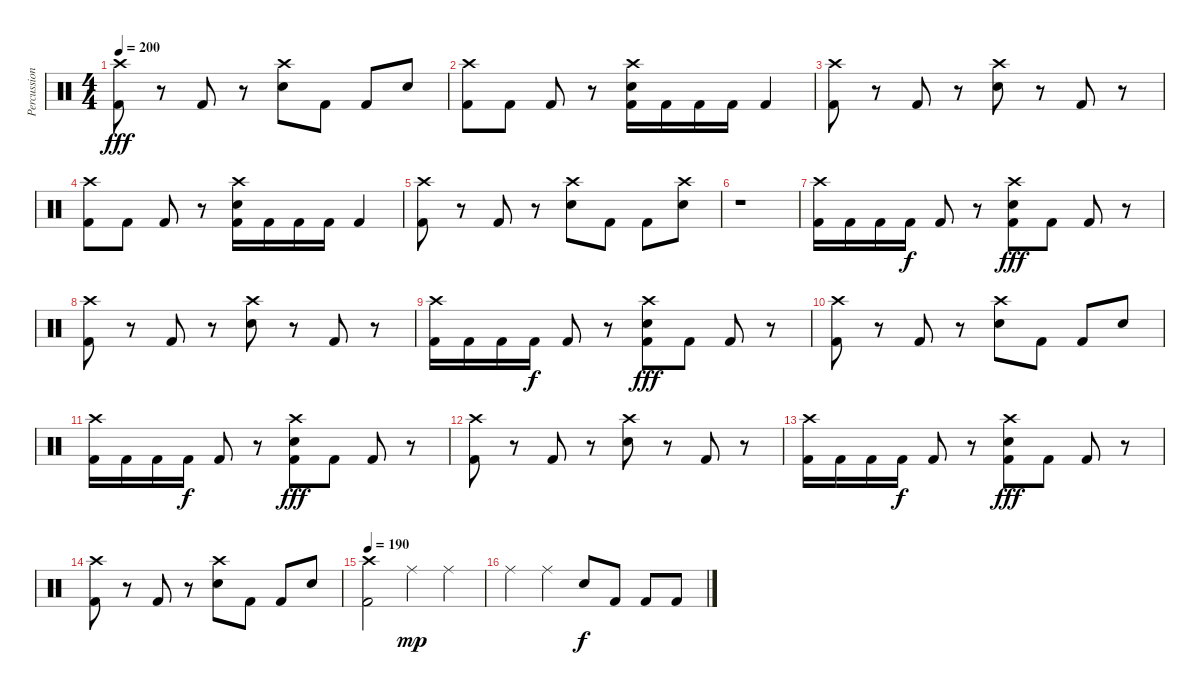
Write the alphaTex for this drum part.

\track ("Percussion" "Percussion") {instrument percussion}
\staff {score}
\articulation defaults
\ts (4 4)
\tempo 200
\clef neutral
\ks c
("Crash high (hit)" "Kick (hit) 2").8{dy fff} r.8 "Kick (hit) 2".8 r.8 ("Crash high (hit)" "Electric Snare (hit)").8 "Kick (hit) 2".8 "Kick (hit) 2".8 "Electric Snare (hit)".8 |
("Crash high (hit)" "Kick (hit) 2").8 "Kick (hit) 2".8 "Kick (hit) 2".8 r.8 ("Crash high (hit)" "Electric Snare (hit)" "Kick (hit) 2").16 "Kick (hit) 2".16 "Kick (hit) 2".16 "Kick (hit) 2".16 "Kick (hit) 2".4 |
("Crash high (hit)" "Kick (hit) 2").8 r.8 "Kick (hit) 2".8 r.8 ("Crash high (hit)" "Electric Snare (hit)").8 r.8 "Kick (hit) 2".8 r.8 |
("Crash high (hit)" "Kick (hit) 2").8 "Kick (hit) 2".8 "Kick (hit) 2".8 r.8 ("Crash high (hit)" "Electric Snare (hit)" "Kick (hit) 2").16 "Kick (hit) 2".16 "Kick (hit) 2".16 "Kick (hit) 2".16 "Kick (hit) 2".4 |
("Crash high (hit)" "Kick (hit) 2").8 r.8 "Kick (hit) 2".8 r.8 ("Crash high (hit)" "Electric Snare (hit)").8 "Kick (hit) 2".8 "Kick (hit) 2".8 ("Crash high (hit)" "Electric Snare (hit)").8 |
r.1 |
("Crash high (hit)" "Kick (hit) 2").16 "Kick (hit) 2".16 "Kick (hit) 2".16 "Kick (hit) 2".16{dy f} "Kick (hit) 2".8 r.8 ("Crash high (hit)" "Electric Snare (hit)" "Kick (hit) 2").8{dy fff} "Kick (hit) 2".8 "Kick (hit) 2".8 r.8 |
("Crash high (hit)" "Kick (hit) 2").8 r.8 "Kick (hit) 2".8 r.8 ("Crash high (hit)" "Electric Snare (hit)").8 r.8 "Kick (hit) 2".8 r.8 |
("Crash high (hit)" "Kick (hit) 2").16 "Kick (hit) 2".16 "Kick (hit) 2".16 "Kick (hit) 2".16{dy f} "Kick (hit) 2".8 r.8 ("Crash high (hit)" "Electric Snare (hit)" "Kick (hit) 2").8{dy fff} "Kick (hit) 2".8 "Kick (hit) 2".8 r.8 |
("Crash high (hit)" "Kick (hit) 2").8 r.8 "Kick (hit) 2".8 r.8 ("Crash high (hit)" "Electric Snare (hit)").8 "Kick (hit) 2".8 "Kick (hit) 2".8 "Electric Snare (hit)".8 |
("Crash high (hit)" "Kick (hit) 2").16 "Kick (hit) 2".16 "Kick (hit) 2".16 "Kick (hit) 2".16{dy f} "Kick (hit) 2".8 r.8 ("Crash high (hit)" "Electric Snare (hit)" "Kick (hit) 2").8{dy fff} "Kick (hit) 2".8 "Kick (hit) 2".8 r.8 |
("Crash high (hit)" "Kick (hit) 2").8 r.8 "Kick (hit) 2".8 r.8 ("Crash high (hit)" "Electric Snare (hit)").8 r.8 "Kick (hit) 2".8 r.8 |
("Crash high (hit)" "Kick (hit) 2").16 "Kick (hit) 2".16 "Kick (hit) 2".16 "Kick (hit) 2".16{dy f} "Kick (hit) 2".8 r.8 ("Crash high (hit)" "Electric Snare (hit)" "Kick (hit) 2").8{dy fff} "Kick (hit) 2".8 "Kick (hit) 2".8 r.8 |
("Crash high (hit)" "Kick (hit) 2").8 r.8 "Kick (hit) 2".8 r.8 ("Crash high (hit)" "Electric Snare (hit)").8 "Kick (hit) 2".8 "Kick (hit) 2".8 "Electric Snare (hit)".8 |
\tempo 190
("Crash high (hit)" "Kick (hit) 2").2 "Ride (middle)".4{dy mp} "Ride (middle)".4 |
"Ride (middle)".4 "Ride (middle)".4 "Electric Snare (hit)".8{dy f} "Kick (hit) 2".8 "Kick (hit) 2".8 "Kick (hit) 2".8
